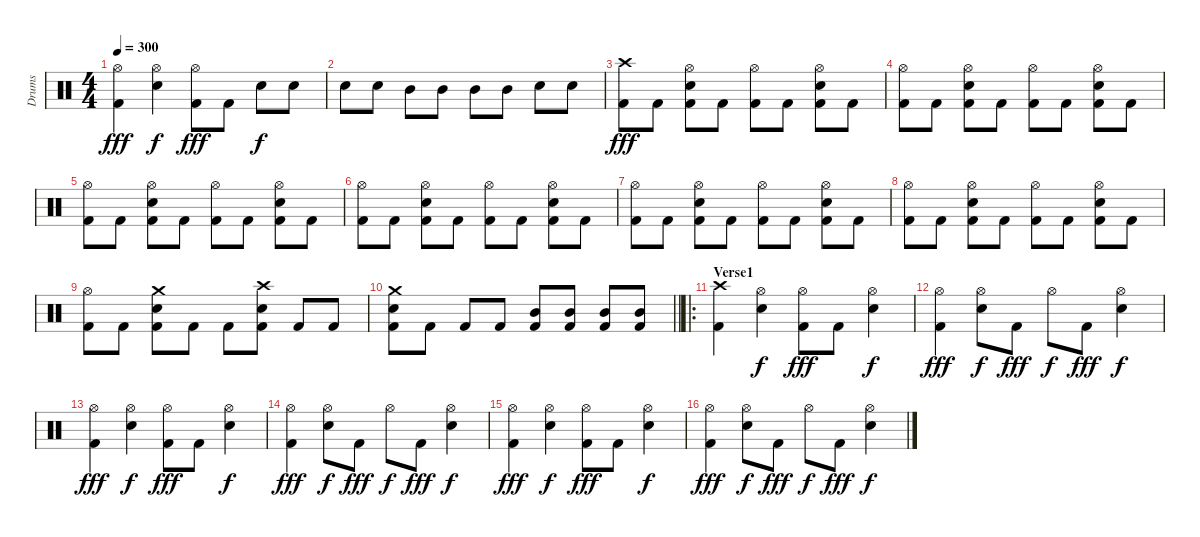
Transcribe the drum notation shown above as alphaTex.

\track ("Drums" "Drums") {instrument percussion}
\staff {score}
\articulation defaults
\ts (4 4)
\tempo 300
\clef neutral
\ks c
("Hi-Hat (open)" "Kick (hit) 2").4{dy fff} ("Hi-Hat (open)" "Snare (hit) 2").4{dy f} ("Hi-Hat (open)" "Kick (hit) 2").8{dy fff} "Kick (hit) 2".8 "Snare (hit) 2".8{dy f} "Snare (hit) 2".8 |
"Snare (hit) 2".8 "Snare (hit) 2".8 "Mid Tom (hit)".8 "Mid Tom (hit)".8 "Mid Tom (hit)".8 "Mid Tom (hit)".8 "Snare (hit) 2".8 "Snare (hit) 2".8 |
("Crash high (hit)" "Kick (hit) 2").8{dy fff} "Kick (hit) 2".8 ("Hi-Hat (open)" "Snare (hit) 2" "Kick (hit) 2").8 "Kick (hit) 2".8 ("Hi-Hat (open)" "Kick (hit) 2").8 "Kick (hit) 2".8 ("Hi-Hat (open)" "Snare (hit) 2" "Kick (hit) 2").8 "Kick (hit) 2".8 |
("Hi-Hat (open)" "Kick (hit) 2").8 "Kick (hit) 2".8 ("Hi-Hat (open)" "Snare (hit) 2" "Kick (hit) 2").8 "Kick (hit) 2".8 ("Hi-Hat (open)" "Kick (hit) 2").8 "Kick (hit) 2".8 ("Hi-Hat (open)" "Snare (hit) 2" "Kick (hit) 2").8 "Kick (hit) 2".8 |
("Hi-Hat (open)" "Kick (hit) 2").8 "Kick (hit) 2".8 ("Hi-Hat (open)" "Snare (hit) 2" "Kick (hit) 2").8 "Kick (hit) 2".8 ("Hi-Hat (open)" "Kick (hit) 2").8 "Kick (hit) 2".8 ("Hi-Hat (open)" "Snare (hit) 2" "Kick (hit) 2").8 "Kick (hit) 2".8 |
("Hi-Hat (open)" "Kick (hit) 2").8 "Kick (hit) 2".8 ("Hi-Hat (open)" "Snare (hit) 2" "Kick (hit) 2").8 "Kick (hit) 2".8 ("Hi-Hat (open)" "Kick (hit) 2").8 "Kick (hit) 2".8 ("Hi-Hat (open)" "Snare (hit) 2" "Kick (hit) 2").8 "Kick (hit) 2".8 |
("Hi-Hat (open)" "Kick (hit) 2").8 "Kick (hit) 2".8 ("Hi-Hat (open)" "Snare (hit) 2" "Kick (hit) 2").8 "Kick (hit) 2".8 ("Hi-Hat (open)" "Kick (hit) 2").8 "Kick (hit) 2".8 ("Hi-Hat (open)" "Snare (hit) 2" "Kick (hit) 2").8 "Kick (hit) 2".8 |
("Hi-Hat (open)" "Kick (hit) 2").8 "Kick (hit) 2".8 ("Hi-Hat (open)" "Snare (hit) 2" "Kick (hit) 2").8 "Kick (hit) 2".8 ("Hi-Hat (open)" "Kick (hit) 2").8 "Kick (hit) 2".8 ("Hi-Hat (open)" "Snare (hit) 2" "Kick (hit) 2").8 "Kick (hit) 2".8 |
("Hi-Hat (open)" "Kick (hit) 2").8 "Kick (hit) 2".8 ("Crash medium (hit)" "Snare (hit) 2" "Kick (hit) 2").8 "Kick (hit) 2".8 "Kick (hit) 2".8 ("Crash high (hit)" "Snare (hit) 2" "Kick (hit) 2").8 "Kick (hit) 2".8 "Kick (hit) 2".8 |
\barLineRight lightlight
("Crash medium (hit)" "Snare (hit) 2" "Kick (hit) 2").8 "Kick (hit) 2".8 "Kick (hit) 2".8 "Kick (hit) 2".8 ("Mid Tom (hit)" "Kick (hit) 2").8 ("Mid Tom (hit)" "Kick (hit) 2").8 ("Mid Tom (hit)" "Kick (hit) 2").8 ("Mid Tom (hit)" "Kick (hit) 2").8 |
\ro
\section ("" "Verse1")
("Crash high (hit)" "Kick (hit) 2").4 ("Hi-Hat (open)" "Snare (hit) 2").4{dy f} ("Hi-Hat (open)" "Kick (hit) 2").8{dy fff} "Kick (hit) 2".8 ("Hi-Hat (open)" "Snare (hit) 2").4{dy f} |
("Hi-Hat (open)" "Kick (hit) 2").4{dy fff} ("Hi-Hat (open)" "Snare (hit) 2").8{dy f} "Kick (hit) 2".8{dy fff} "Hi-Hat (open)".8{dy f} "Kick (hit) 2".8{dy fff} ("Hi-Hat (open)" "Snare (hit) 2").4{dy f} |
("Hi-Hat (open)" "Kick (hit) 2").4{dy fff} ("Hi-Hat (open)" "Snare (hit) 2").4{dy f} ("Hi-Hat (open)" "Kick (hit) 2").8{dy fff} "Kick (hit) 2".8 ("Hi-Hat (open)" "Snare (hit) 2").4{dy f} |
("Hi-Hat (open)" "Kick (hit) 2").4{dy fff} ("Hi-Hat (open)" "Snare (hit) 2").8{dy f} "Kick (hit) 2".8{dy fff} "Hi-Hat (open)".8{dy f} "Kick (hit) 2".8{dy fff} ("Hi-Hat (open)" "Snare (hit) 2").4{dy f} |
("Hi-Hat (open)" "Kick (hit) 2").4{dy fff} ("Hi-Hat (open)" "Snare (hit) 2").4{dy f} ("Hi-Hat (open)" "Kick (hit) 2").8{dy fff} "Kick (hit) 2".8 ("Hi-Hat (open)" "Snare (hit) 2").4{dy f} |
("Hi-Hat (open)" "Kick (hit) 2").4{dy fff} ("Hi-Hat (open)" "Snare (hit) 2").8{dy f} "Kick (hit) 2".8{dy fff} "Hi-Hat (open)".8{dy f} "Kick (hit) 2".8{dy fff} ("Hi-Hat (open)" "Snare (hit) 2").4{dy f}
